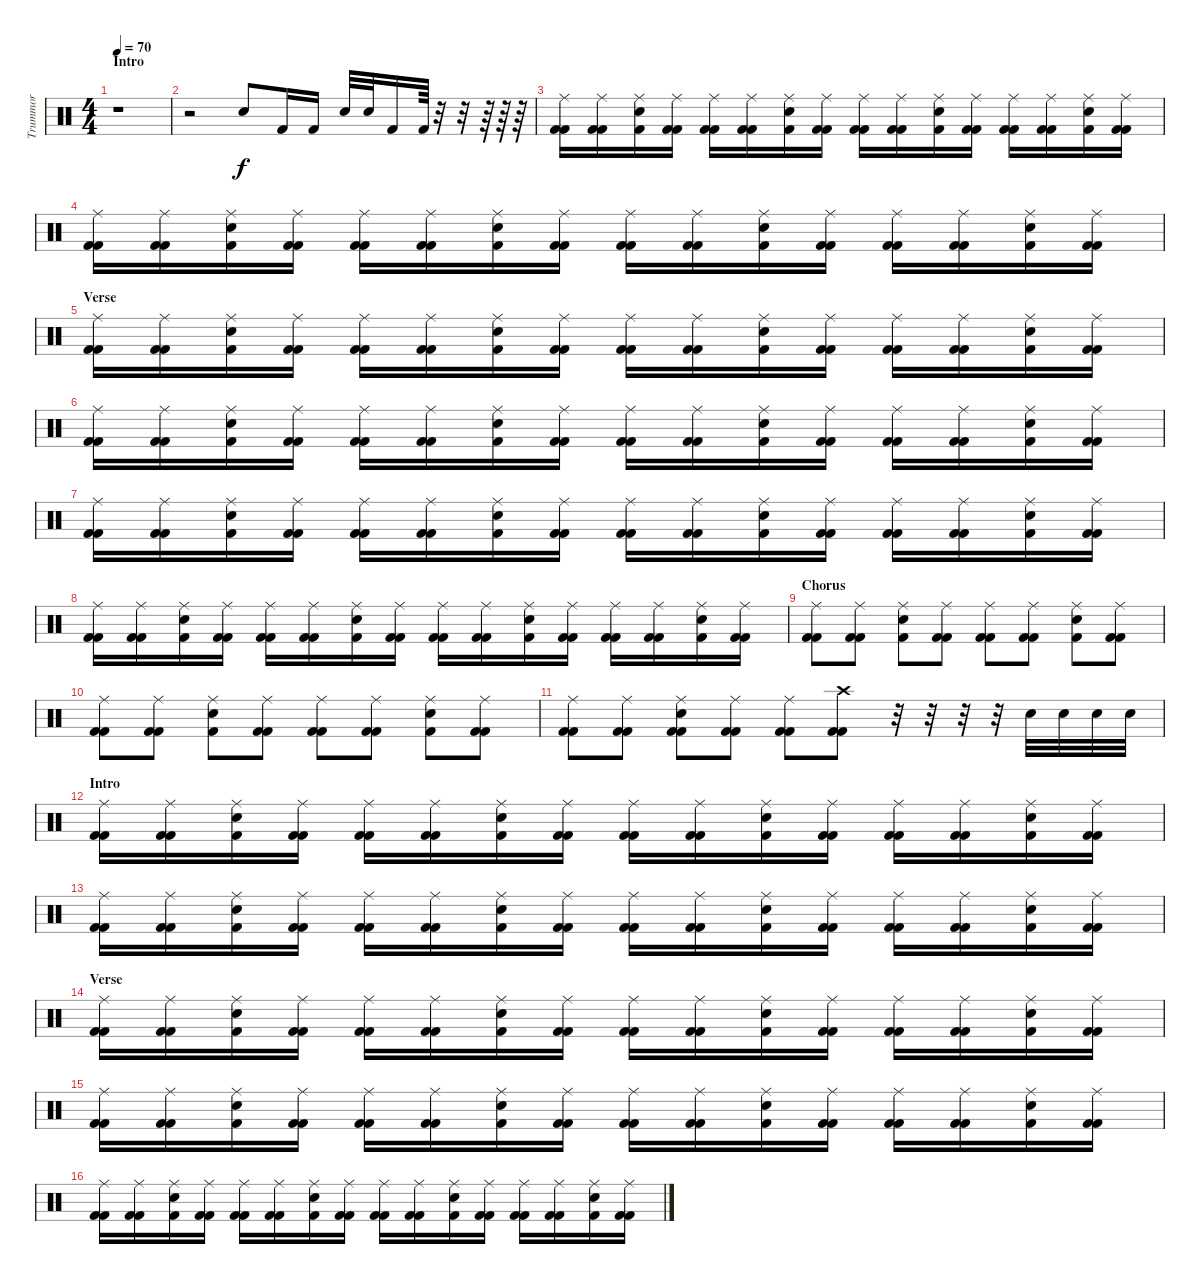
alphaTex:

\track ("Trummor" "Trummor") {instrument percussion}
\staff {score}
\articulation defaults
\ts (4 4)
\section ("" "Intro")
\tempo 70
\clef neutral
\ks c
r.1{dy f} |
r.2 "Snare (hit) 2".8 "Kick (hit) 2".16 "Kick (hit) 2".16 "Snare (hit) 2".32 "Snare (hit) 2".32 "Kick (hit) 2".16 "Kick (hit) 2".64 r.32 r.32 r.64 r.64 r.64 |
("Ride (middle)" "Kick (hit) 2" "Kick (hit) 2").16 ("Ride (middle)" "Kick (hit) 2" "Kick (hit) 2").16 ("Snare (hit) 2" "Ride (middle)" "Kick (hit) 2").16 ("Ride (middle)" "Kick (hit) 2" "Kick (hit) 2").16 ("Ride (middle)" "Kick (hit) 2" "Kick (hit) 2").16 ("Ride (middle)" "Kick (hit) 2" "Kick (hit) 2").16 ("Snare (hit) 2" "Ride (middle)" "Kick (hit) 2").16 ("Ride (middle)" "Kick (hit) 2" "Kick (hit) 2").16 ("Ride (middle)" "Kick (hit) 2" "Kick (hit) 2").16 ("Ride (middle)" "Kick (hit) 2" "Kick (hit) 2").16 ("Snare (hit) 2" "Ride (middle)" "Kick (hit) 2").16 ("Ride (middle)" "Kick (hit) 2" "Kick (hit) 2").16 ("Ride (middle)" "Kick (hit) 2" "Kick (hit) 2").16 ("Ride (middle)" "Kick (hit) 2" "Kick (hit) 2").16 ("Snare (hit) 2" "Ride (middle)" "Kick (hit) 2").16 ("Ride (middle)" "Kick (hit) 2" "Kick (hit) 2").16 |
("Ride (middle)" "Kick (hit) 2" "Kick (hit) 2").16 ("Ride (middle)" "Kick (hit) 2" "Kick (hit) 2").16 ("Snare (hit) 2" "Ride (middle)" "Kick (hit) 2").16 ("Ride (middle)" "Kick (hit) 2" "Kick (hit) 2").16 ("Ride (middle)" "Kick (hit) 2" "Kick (hit) 2").16 ("Ride (middle)" "Kick (hit) 2" "Kick (hit) 2").16 ("Snare (hit) 2" "Ride (middle)" "Kick (hit) 2").16 ("Ride (middle)" "Kick (hit) 2" "Kick (hit) 2").16 ("Ride (middle)" "Kick (hit) 2" "Kick (hit) 2").16 ("Ride (middle)" "Kick (hit) 2" "Kick (hit) 2").16 ("Snare (hit) 2" "Ride (middle)" "Kick (hit) 2").16 ("Ride (middle)" "Kick (hit) 2" "Kick (hit) 2").16 ("Ride (middle)" "Kick (hit) 2" "Kick (hit) 2").16 ("Ride (middle)" "Kick (hit) 2" "Kick (hit) 2").16 ("Snare (hit) 2" "Ride (middle)" "Kick (hit) 2").16 ("Ride (middle)" "Kick (hit) 2" "Kick (hit) 2").16 |
\section ("" "Verse")
("Ride (middle)" "Kick (hit) 2" "Kick (hit) 2").16 ("Ride (middle)" "Kick (hit) 2" "Kick (hit) 2").16 ("Snare (hit) 2" "Ride (middle)" "Kick (hit) 2").16 ("Ride (middle)" "Kick (hit) 2" "Kick (hit) 2").16 ("Ride (middle)" "Kick (hit) 2" "Kick (hit) 2").16 ("Ride (middle)" "Kick (hit) 2" "Kick (hit) 2").16 ("Snare (hit) 2" "Ride (middle)" "Kick (hit) 2").16 ("Ride (middle)" "Kick (hit) 2" "Kick (hit) 2").16 ("Ride (middle)" "Kick (hit) 2" "Kick (hit) 2").16 ("Ride (middle)" "Kick (hit) 2" "Kick (hit) 2").16 ("Snare (hit) 2" "Ride (middle)" "Kick (hit) 2").16 ("Ride (middle)" "Kick (hit) 2" "Kick (hit) 2").16 ("Ride (middle)" "Kick (hit) 2" "Kick (hit) 2").16 ("Ride (middle)" "Kick (hit) 2" "Kick (hit) 2").16 ("Snare (hit) 2" "Ride (middle)" "Kick (hit) 2").16 ("Ride (middle)" "Kick (hit) 2" "Kick (hit) 2").16 |
("Ride (middle)" "Kick (hit) 2" "Kick (hit) 2").16 ("Ride (middle)" "Kick (hit) 2" "Kick (hit) 2").16 ("Snare (hit) 2" "Ride (middle)" "Kick (hit) 2").16 ("Ride (middle)" "Kick (hit) 2" "Kick (hit) 2").16 ("Ride (middle)" "Kick (hit) 2" "Kick (hit) 2").16 ("Ride (middle)" "Kick (hit) 2" "Kick (hit) 2").16 ("Snare (hit) 2" "Ride (middle)" "Kick (hit) 2").16 ("Ride (middle)" "Kick (hit) 2" "Kick (hit) 2").16 ("Ride (middle)" "Kick (hit) 2" "Kick (hit) 2").16 ("Ride (middle)" "Kick (hit) 2" "Kick (hit) 2").16 ("Snare (hit) 2" "Ride (middle)" "Kick (hit) 2").16 ("Ride (middle)" "Kick (hit) 2" "Kick (hit) 2").16 ("Ride (middle)" "Kick (hit) 2" "Kick (hit) 2").16 ("Ride (middle)" "Kick (hit) 2" "Kick (hit) 2").16 ("Snare (hit) 2" "Ride (middle)" "Kick (hit) 2").16 ("Ride (middle)" "Kick (hit) 2" "Kick (hit) 2").16 |
("Ride (middle)" "Kick (hit) 2" "Kick (hit) 2").16 ("Ride (middle)" "Kick (hit) 2" "Kick (hit) 2").16 ("Snare (hit) 2" "Ride (middle)" "Kick (hit) 2").16 ("Ride (middle)" "Kick (hit) 2" "Kick (hit) 2").16 ("Ride (middle)" "Kick (hit) 2" "Kick (hit) 2").16 ("Ride (middle)" "Kick (hit) 2" "Kick (hit) 2").16 ("Snare (hit) 2" "Ride (middle)" "Kick (hit) 2").16 ("Ride (middle)" "Kick (hit) 2" "Kick (hit) 2").16 ("Ride (middle)" "Kick (hit) 2" "Kick (hit) 2").16 ("Ride (middle)" "Kick (hit) 2" "Kick (hit) 2").16 ("Snare (hit) 2" "Ride (middle)" "Kick (hit) 2").16 ("Ride (middle)" "Kick (hit) 2" "Kick (hit) 2").16 ("Ride (middle)" "Kick (hit) 2" "Kick (hit) 2").16 ("Ride (middle)" "Kick (hit) 2" "Kick (hit) 2").16 ("Snare (hit) 2" "Ride (middle)" "Kick (hit) 2").16 ("Ride (middle)" "Kick (hit) 2" "Kick (hit) 2").16 |
("Ride (middle)" "Kick (hit) 2" "Kick (hit) 2").16 ("Ride (middle)" "Kick (hit) 2" "Kick (hit) 2").16 ("Snare (hit) 2" "Ride (middle)" "Kick (hit) 2").16 ("Ride (middle)" "Kick (hit) 2" "Kick (hit) 2").16 ("Ride (middle)" "Kick (hit) 2" "Kick (hit) 2").16 ("Ride (middle)" "Kick (hit) 2" "Kick (hit) 2").16 ("Snare (hit) 2" "Ride (middle)" "Kick (hit) 2").16 ("Ride (middle)" "Kick (hit) 2" "Kick (hit) 2").16 ("Ride (middle)" "Kick (hit) 2" "Kick (hit) 2").16 ("Ride (middle)" "Kick (hit) 2" "Kick (hit) 2").16 ("Snare (hit) 2" "Ride (middle)" "Kick (hit) 2").16 ("Ride (middle)" "Kick (hit) 2" "Kick (hit) 2").16 ("Ride (middle)" "Kick (hit) 2" "Kick (hit) 2").16 ("Ride (middle)" "Kick (hit) 2" "Kick (hit) 2").16 ("Snare (hit) 2" "Ride (middle)" "Kick (hit) 2").16 ("Ride (middle)" "Kick (hit) 2" "Kick (hit) 2").16 |
\section ("" "Chorus")
("Ride (middle)" "Kick (hit) 2" "Kick (hit) 2").8 ("Ride (middle)" "Kick (hit) 2" "Kick (hit) 2").8 ("Ride (middle)" "Snare (hit) 2" "Kick (hit) 2").8 ("Ride (middle)" "Kick (hit) 2" "Kick (hit) 2").8 ("Ride (middle)" "Kick (hit) 2" "Kick (hit) 2").8 ("Ride (middle)" "Kick (hit) 2" "Kick (hit) 2").8 ("Ride (middle)" "Snare (hit) 2" "Kick (hit) 2").8 ("Ride (middle)" "Kick (hit) 2" "Kick (hit) 2").8 |
("Ride (middle)" "Kick (hit) 2" "Kick (hit) 2").8 ("Ride (middle)" "Kick (hit) 2" "Kick (hit) 2").8 ("Ride (middle)" "Snare (hit) 2" "Kick (hit) 2").8 ("Ride (middle)" "Kick (hit) 2" "Kick (hit) 2").8 ("Ride (middle)" "Kick (hit) 2" "Kick (hit) 2").8 ("Ride (middle)" "Kick (hit) 2" "Kick (hit) 2").8 ("Ride (middle)" "Snare (hit) 2" "Kick (hit) 2").8 ("Ride (middle)" "Kick (hit) 2" "Kick (hit) 2").8 |
("Ride (middle)" "Kick (hit) 2" "Kick (hit) 2").8 ("Ride (middle)" "Kick (hit) 2" "Kick (hit) 2").8 ("Ride (middle)" "Snare (hit) 2" "Kick (hit) 2" "Kick (hit) 2").8 ("Ride (middle)" "Kick (hit) 2" "Kick (hit) 2").8 ("Ride (middle)" "Kick (hit) 2" "Kick (hit) 2").8 ("Crash high (hit)" "Kick (hit) 2" "Kick (hit) 2").8 r.32 r.32 r.32 r.32 "Snare (hit) 2".32 "Snare (hit) 2".32 "Snare (hit) 2".32 "Snare (hit) 2".32 |
\section ("" "Intro")
("Ride (middle)" "Kick (hit) 2" "Kick (hit) 2").16 ("Ride (middle)" "Kick (hit) 2" "Kick (hit) 2").16 ("Snare (hit) 2" "Ride (middle)" "Kick (hit) 2").16 ("Ride (middle)" "Kick (hit) 2" "Kick (hit) 2").16 ("Ride (middle)" "Kick (hit) 2" "Kick (hit) 2").16 ("Ride (middle)" "Kick (hit) 2" "Kick (hit) 2").16 ("Snare (hit) 2" "Ride (middle)" "Kick (hit) 2").16 ("Ride (middle)" "Kick (hit) 2" "Kick (hit) 2").16 ("Ride (middle)" "Kick (hit) 2" "Kick (hit) 2").16 ("Ride (middle)" "Kick (hit) 2" "Kick (hit) 2").16 ("Snare (hit) 2" "Ride (middle)" "Kick (hit) 2").16 ("Ride (middle)" "Kick (hit) 2" "Kick (hit) 2").16 ("Ride (middle)" "Kick (hit) 2" "Kick (hit) 2").16 ("Ride (middle)" "Kick (hit) 2" "Kick (hit) 2").16 ("Snare (hit) 2" "Ride (middle)" "Kick (hit) 2").16 ("Ride (middle)" "Kick (hit) 2" "Kick (hit) 2").16 |
("Ride (middle)" "Kick (hit) 2" "Kick (hit) 2").16 ("Ride (middle)" "Kick (hit) 2" "Kick (hit) 2").16 ("Snare (hit) 2" "Ride (middle)" "Kick (hit) 2").16 ("Ride (middle)" "Kick (hit) 2" "Kick (hit) 2").16 ("Ride (middle)" "Kick (hit) 2" "Kick (hit) 2").16 ("Ride (middle)" "Kick (hit) 2" "Kick (hit) 2").16 ("Snare (hit) 2" "Ride (middle)" "Kick (hit) 2").16 ("Ride (middle)" "Kick (hit) 2" "Kick (hit) 2").16 ("Ride (middle)" "Kick (hit) 2" "Kick (hit) 2").16 ("Ride (middle)" "Kick (hit) 2" "Kick (hit) 2").16 ("Snare (hit) 2" "Ride (middle)" "Kick (hit) 2").16 ("Ride (middle)" "Kick (hit) 2" "Kick (hit) 2").16 ("Ride (middle)" "Kick (hit) 2" "Kick (hit) 2").16 ("Ride (middle)" "Kick (hit) 2" "Kick (hit) 2").16 ("Snare (hit) 2" "Ride (middle)" "Kick (hit) 2").16 ("Ride (middle)" "Kick (hit) 2" "Kick (hit) 2").16 |
\section ("" "Verse")
("Ride (middle)" "Kick (hit) 2" "Kick (hit) 2").16 ("Ride (middle)" "Kick (hit) 2" "Kick (hit) 2").16 ("Snare (hit) 2" "Ride (middle)" "Kick (hit) 2").16 ("Ride (middle)" "Kick (hit) 2" "Kick (hit) 2").16 ("Ride (middle)" "Kick (hit) 2" "Kick (hit) 2").16 ("Ride (middle)" "Kick (hit) 2" "Kick (hit) 2").16 ("Snare (hit) 2" "Ride (middle)" "Kick (hit) 2").16 ("Ride (middle)" "Kick (hit) 2" "Kick (hit) 2").16 ("Ride (middle)" "Kick (hit) 2" "Kick (hit) 2").16 ("Ride (middle)" "Kick (hit) 2" "Kick (hit) 2").16 ("Snare (hit) 2" "Ride (middle)" "Kick (hit) 2").16 ("Ride (middle)" "Kick (hit) 2" "Kick (hit) 2").16 ("Ride (middle)" "Kick (hit) 2" "Kick (hit) 2").16 ("Ride (middle)" "Kick (hit) 2" "Kick (hit) 2").16 ("Snare (hit) 2" "Ride (middle)" "Kick (hit) 2").16 ("Ride (middle)" "Kick (hit) 2" "Kick (hit) 2").16 |
("Ride (middle)" "Kick (hit) 2" "Kick (hit) 2").16 ("Ride (middle)" "Kick (hit) 2" "Kick (hit) 2").16 ("Snare (hit) 2" "Ride (middle)" "Kick (hit) 2").16 ("Ride (middle)" "Kick (hit) 2" "Kick (hit) 2").16 ("Ride (middle)" "Kick (hit) 2" "Kick (hit) 2").16 ("Ride (middle)" "Kick (hit) 2" "Kick (hit) 2").16 ("Snare (hit) 2" "Ride (middle)" "Kick (hit) 2").16 ("Ride (middle)" "Kick (hit) 2" "Kick (hit) 2").16 ("Ride (middle)" "Kick (hit) 2" "Kick (hit) 2").16 ("Ride (middle)" "Kick (hit) 2" "Kick (hit) 2").16 ("Snare (hit) 2" "Ride (middle)" "Kick (hit) 2").16 ("Ride (middle)" "Kick (hit) 2" "Kick (hit) 2").16 ("Ride (middle)" "Kick (hit) 2" "Kick (hit) 2").16 ("Ride (middle)" "Kick (hit) 2" "Kick (hit) 2").16 ("Snare (hit) 2" "Ride (middle)" "Kick (hit) 2").16 ("Ride (middle)" "Kick (hit) 2" "Kick (hit) 2").16 |
("Ride (middle)" "Kick (hit) 2" "Kick (hit) 2").16 ("Ride (middle)" "Kick (hit) 2" "Kick (hit) 2").16 ("Snare (hit) 2" "Ride (middle)" "Kick (hit) 2").16 ("Ride (middle)" "Kick (hit) 2" "Kick (hit) 2").16 ("Ride (middle)" "Kick (hit) 2" "Kick (hit) 2").16 ("Ride (middle)" "Kick (hit) 2" "Kick (hit) 2").16 ("Snare (hit) 2" "Ride (middle)" "Kick (hit) 2").16 ("Ride (middle)" "Kick (hit) 2" "Kick (hit) 2").16 ("Ride (middle)" "Kick (hit) 2" "Kick (hit) 2").16 ("Ride (middle)" "Kick (hit) 2" "Kick (hit) 2").16 ("Snare (hit) 2" "Ride (middle)" "Kick (hit) 2").16 ("Ride (middle)" "Kick (hit) 2" "Kick (hit) 2").16 ("Ride (middle)" "Kick (hit) 2" "Kick (hit) 2").16 ("Ride (middle)" "Kick (hit) 2" "Kick (hit) 2").16 ("Snare (hit) 2" "Ride (middle)" "Kick (hit) 2").16 ("Ride (middle)" "Kick (hit) 2" "Kick (hit) 2").16
